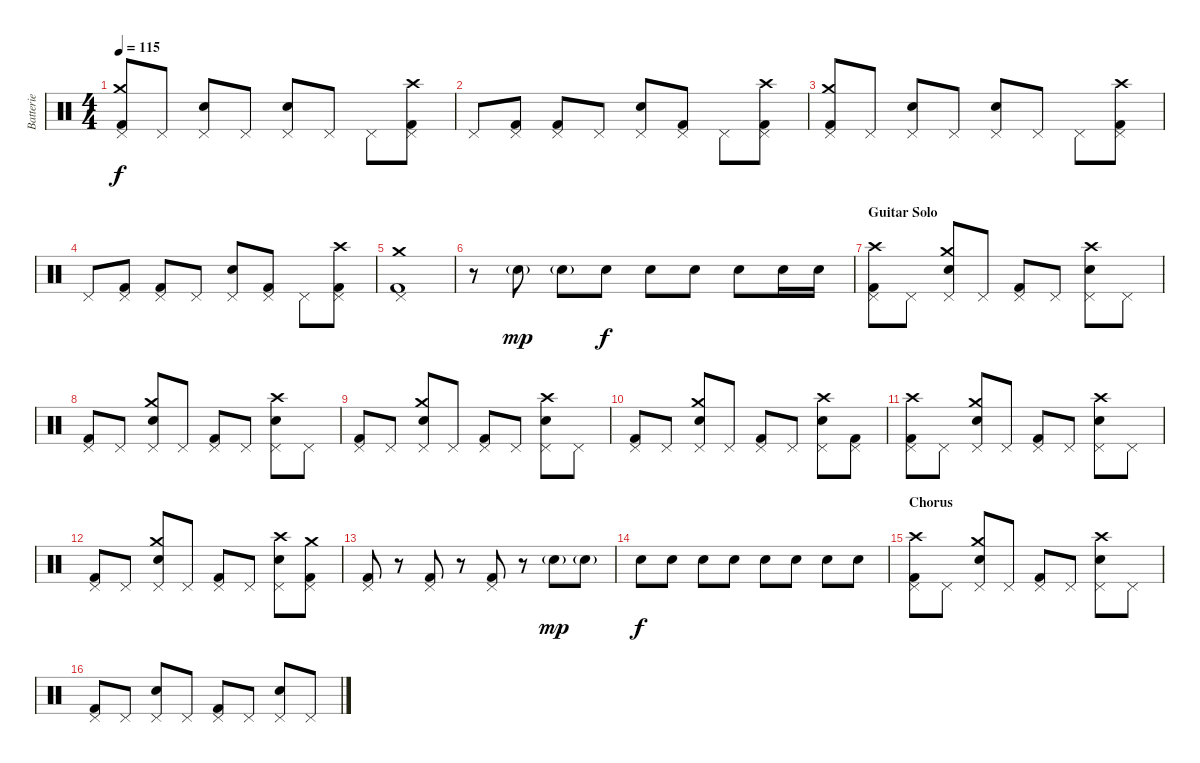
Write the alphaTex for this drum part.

\track ("Batterie" "Batterie") {instrument percussion}
\staff {score}
\articulation defaults
\ts (4 4)
\tempo 115
\clef neutral
\ks c
("Pedal Hi-Hat (hit)" "Crash medium (hit)" "Kick (hit) 2").8{dy f} "Pedal Hi-Hat (hit)".8 ("Pedal Hi-Hat (hit)" "Snare (hit) 2").8 "Pedal Hi-Hat (hit)".8 ("Pedal Hi-Hat (hit)" "Snare (hit) 2").8 "Pedal Hi-Hat (hit)".8 "Pedal Hi-Hat (hit)".8 ("Pedal Hi-Hat (hit)" "Crash high (hit)" "Kick (hit) 2").8 |
"Pedal Hi-Hat (hit)".8 ("Pedal Hi-Hat (hit)" "Kick (hit) 2").8 ("Pedal Hi-Hat (hit)" "Kick (hit) 2").8 "Pedal Hi-Hat (hit)".8 ("Pedal Hi-Hat (hit)" "Snare (hit) 2").8 ("Pedal Hi-Hat (hit)" "Kick (hit) 2").8 "Pedal Hi-Hat (hit)".8 ("Pedal Hi-Hat (hit)" "Crash high (hit)" "Kick (hit) 2").8 |
("Pedal Hi-Hat (hit)" "Crash medium (hit)" "Kick (hit) 2").8 "Pedal Hi-Hat (hit)".8 ("Pedal Hi-Hat (hit)" "Snare (hit) 2").8 "Pedal Hi-Hat (hit)".8 ("Pedal Hi-Hat (hit)" "Snare (hit) 2").8 "Pedal Hi-Hat (hit)".8 "Pedal Hi-Hat (hit)".8 ("Pedal Hi-Hat (hit)" "Crash high (hit)" "Kick (hit) 2").8 |
"Pedal Hi-Hat (hit)".8 ("Pedal Hi-Hat (hit)" "Kick (hit) 2").8 ("Pedal Hi-Hat (hit)" "Kick (hit) 2").8 "Pedal Hi-Hat (hit)".8 ("Pedal Hi-Hat (hit)" "Snare (hit) 2").8 ("Pedal Hi-Hat (hit)" "Kick (hit) 2").8 "Pedal Hi-Hat (hit)".8 ("Pedal Hi-Hat (hit)" "Crash high (hit)" "Kick (hit) 2").8 |
("Pedal Hi-Hat (hit)" "Crash medium (hit)" "Kick (hit) 2").1 |
r.8 "Snare (hit) 2"{g}.8{dy mp} "Snare (hit) 2"{g}.8 "Snare (hit) 2".8{dy f} "Snare (hit) 2".8 "Snare (hit) 2".8 "Snare (hit) 2".8 "Snare (hit) 2".16 "Snare (hit) 2".16 |
\section ("" "Guitar Solo")
("Pedal Hi-Hat (hit)" "Crash high (hit)" "Kick (hit) 2").8 "Pedal Hi-Hat (hit)".8 ("Pedal Hi-Hat (hit)" "Crash medium (hit)" "Snare (hit) 2").8 "Pedal Hi-Hat (hit)".8 ("Pedal Hi-Hat (hit)" "Kick (hit) 2").8 "Pedal Hi-Hat (hit)".8 ("Pedal Hi-Hat (hit)" "Crash high (hit)" "Snare (hit) 2").8 "Pedal Hi-Hat (hit)".8 |
("Pedal Hi-Hat (hit)" "Kick (hit) 2").8 "Pedal Hi-Hat (hit)".8 ("Pedal Hi-Hat (hit)" "Crash medium (hit)" "Snare (hit) 2").8 "Pedal Hi-Hat (hit)".8 ("Pedal Hi-Hat (hit)" "Kick (hit) 2").8 "Pedal Hi-Hat (hit)".8 ("Pedal Hi-Hat (hit)" "Crash high (hit)" "Snare (hit) 2").8 "Pedal Hi-Hat (hit)".8 |
("Pedal Hi-Hat (hit)" "Kick (hit) 2").8 "Pedal Hi-Hat (hit)".8 ("Pedal Hi-Hat (hit)" "Crash medium (hit)" "Snare (hit) 2").8 "Pedal Hi-Hat (hit)".8 ("Pedal Hi-Hat (hit)" "Kick (hit) 2").8 "Pedal Hi-Hat (hit)".8 ("Pedal Hi-Hat (hit)" "Crash high (hit)" "Snare (hit) 2").8 "Pedal Hi-Hat (hit)".8 |
("Pedal Hi-Hat (hit)" "Kick (hit) 2").8 "Pedal Hi-Hat (hit)".8 ("Pedal Hi-Hat (hit)" "Crash medium (hit)" "Snare (hit) 2").8 "Pedal Hi-Hat (hit)".8 ("Pedal Hi-Hat (hit)" "Kick (hit) 2").8 "Pedal Hi-Hat (hit)".8 ("Pedal Hi-Hat (hit)" "Crash high (hit)" "Snare (hit) 2").8 ("Pedal Hi-Hat (hit)" "Kick (hit) 2").8 |
("Pedal Hi-Hat (hit)" "Crash high (hit)" "Kick (hit) 2").8 "Pedal Hi-Hat (hit)".8 ("Pedal Hi-Hat (hit)" "Crash medium (hit)" "Snare (hit) 2").8 "Pedal Hi-Hat (hit)".8 ("Pedal Hi-Hat (hit)" "Kick (hit) 2").8 "Pedal Hi-Hat (hit)".8 ("Pedal Hi-Hat (hit)" "Crash high (hit)" "Snare (hit) 2").8 "Pedal Hi-Hat (hit)".8 |
("Pedal Hi-Hat (hit)" "Kick (hit) 2").8 "Pedal Hi-Hat (hit)".8 ("Pedal Hi-Hat (hit)" "Crash medium (hit)" "Snare (hit) 2").8 "Pedal Hi-Hat (hit)".8 ("Pedal Hi-Hat (hit)" "Kick (hit) 2").8 "Pedal Hi-Hat (hit)".8 ("Pedal Hi-Hat (hit)" "Crash high (hit)" "Snare (hit) 2").8 ("Pedal Hi-Hat (hit)" "Crash medium (hit)" "Kick (hit) 2").8 |
("Pedal Hi-Hat (hit)" "Kick (hit) 2").8 r.8 ("Pedal Hi-Hat (hit)" "Kick (hit) 2").8 r.8 ("Pedal Hi-Hat (hit)" "Kick (hit) 2").8 r.8 "Snare (hit) 2"{g}.8{dy mp} "Snare (hit) 2"{g}.8 |
"Snare (hit) 2".8{dy f} "Snare (hit) 2".8 "Snare (hit) 2".8 "Snare (hit) 2".8 "Snare (hit) 2".8 "Snare (hit) 2".8 "Snare (hit) 2".8 "Snare (hit) 2".8 |
\section ("" "Chorus")
("Pedal Hi-Hat (hit)" "Crash high (hit)" "Kick (hit) 2").8 "Pedal Hi-Hat (hit)".8 ("Pedal Hi-Hat (hit)" "Crash medium (hit)" "Snare (hit) 2").8 "Pedal Hi-Hat (hit)".8 ("Pedal Hi-Hat (hit)" "Kick (hit) 2").8 "Pedal Hi-Hat (hit)".8 ("Pedal Hi-Hat (hit)" "Crash high (hit)" "Snare (hit) 2").8 "Pedal Hi-Hat (hit)".8 |
("Pedal Hi-Hat (hit)" "Kick (hit) 2").8 "Pedal Hi-Hat (hit)".8 ("Pedal Hi-Hat (hit)" "Snare (hit) 2").8 "Pedal Hi-Hat (hit)".8 ("Pedal Hi-Hat (hit)" "Kick (hit) 2").8 "Pedal Hi-Hat (hit)".8 ("Pedal Hi-Hat (hit)" "Snare (hit) 2").8 "Pedal Hi-Hat (hit)".8
